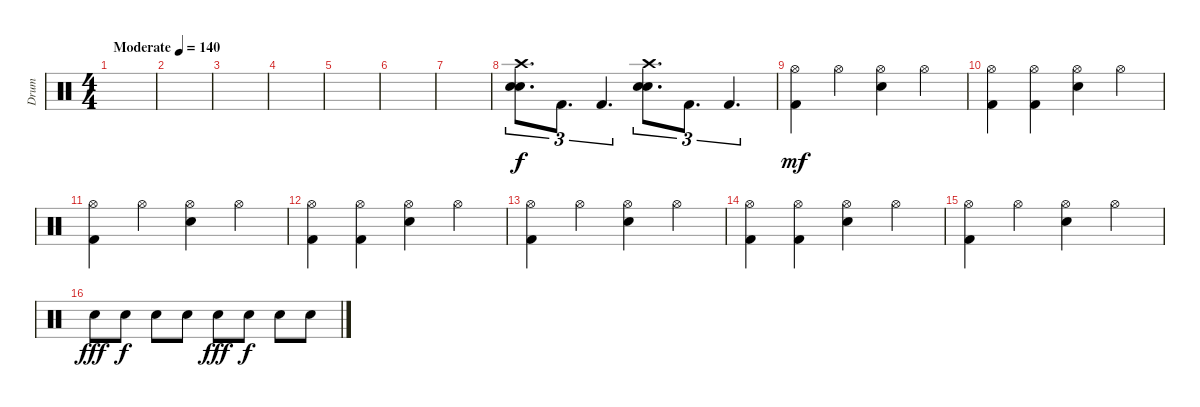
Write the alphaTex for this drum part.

\track ("Drum" "Drum") {instrument percussion}
\staff {score}
\articulation defaults
\ts (4 4)
\tempo (140 "Moderate")
\clef neutral
\ks c
|
|
|
|
|
|
|
("Electric Snare (hit)" "Electric Snare (hit)" "Crash high (hit)").8{d tu (3 2)} "Kick (hit) 2".8{d tu (3 2)} "Kick (hit) 2".4{d tu (3 2)} ("Electric Snare (hit)" "Electric Snare (hit)" "Crash high (hit)").8{d tu (3 2)} "Kick (hit) 2".8{d tu (3 2)} "Kick (hit) 2".4{d tu (3 2)} |
("Hi-Hat (open)" "Kick (hit) 2").4{dy mf} "Hi-Hat (open)".4 ("Hi-Hat (open)" "Electric Snare (hit)").4 "Hi-Hat (open)".4 |
("Hi-Hat (open)" "Kick (hit) 2").4 ("Hi-Hat (open)" "Kick (hit) 2").4 ("Hi-Hat (open)" "Electric Snare (hit)").4 "Hi-Hat (open)".4 |
("Hi-Hat (open)" "Kick (hit) 2").4 "Hi-Hat (open)".4 ("Hi-Hat (open)" "Snare (hit) 2").4 "Hi-Hat (open)".4 |
("Hi-Hat (open)" "Kick (hit) 2").4 ("Hi-Hat (open)" "Kick (hit) 2").4 ("Hi-Hat (open)" "Electric Snare (hit)").4 "Hi-Hat (open)".4 |
("Hi-Hat (open)" "Kick (hit) 2").4 "Hi-Hat (open)".4 ("Hi-Hat (open)" "Electric Snare (hit)").4 "Hi-Hat (open)".4 |
("Hi-Hat (open)" "Kick (hit) 2").4 ("Hi-Hat (open)" "Kick (hit) 2").4 ("Hi-Hat (open)" "Electric Snare (hit)").4 "Hi-Hat (open)".4 |
("Hi-Hat (open)" "Kick (hit) 2").4 "Hi-Hat (open)".4 ("Hi-Hat (open)" "Snare (hit) 2").4 "Hi-Hat (open)".4 |
"Electric Snare (hit)".8{dy fff} "Electric Snare (hit)".8{dy f} "Electric Snare (hit)".8 "Electric Snare (hit)".8 "Electric Snare (hit)".8{dy fff} "Electric Snare (hit)".8{dy f} "Electric Snare (hit)".8 "Electric Snare (hit)".8
